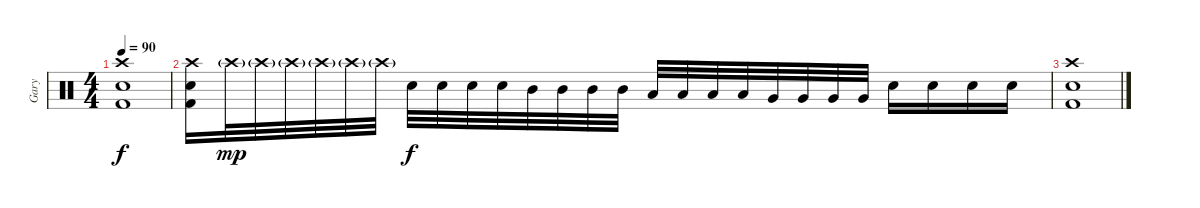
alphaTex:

\track ("Gary" "Gary") {instrument percussion}
\staff {score}
\articulation defaults
\ts (4 4)
\tempo 90
\clef neutral
\ks c
("Crash high (hit)" "Electric Snare (hit)" "Kick (hit) 2").1{dy f} |
("Crash high (hit)" "Electric Snare (hit)" "Kick (hit) 2").16 "Crash high (hit)"{g}.32{dy mp} "Crash high (hit)"{g}.32 "Crash high (hit)"{g}.32 "Crash high (hit)"{g}.32 "Crash high (hit)"{g}.32 "Crash high (hit)"{g}.32 "Electric Snare (hit)".32{dy f} "Electric Snare (hit)".32 "Electric Snare (hit)".32 "Electric Snare (hit)".32 "Mid Tom (hit)".32 "Mid Tom (hit)".32 "Mid Tom (hit)".32 "Mid Tom (hit)".32 "Low Tom (hit)".32 "Low Tom (hit)".32 "Low Tom (hit)".32 "Low Tom (hit)".32 "Very Low Tom (hit)".32 "Very Low Tom (hit)".32 "Very Low Tom (hit)".32 "Very Low Tom (hit)".32 "Electric Snare (hit)".16 "Electric Snare (hit)".16 "Electric Snare (hit)".16 "Electric Snare (hit)".16 |
("Crash high (hit)" "Electric Snare (hit)" "Kick (hit) 2").1
